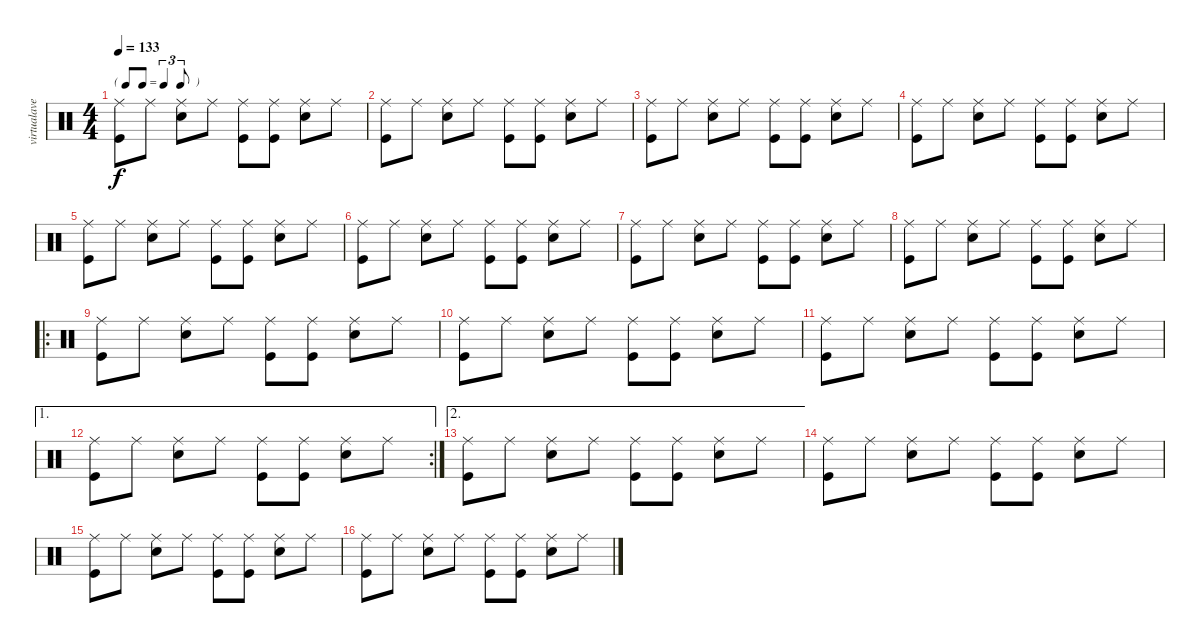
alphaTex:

\track ("virtualave.net" "virtualave") {instrument percussion}
\staff {score}
\articulation defaults
\ts (4 4)
\tf triplet8th
\tempo 133
\clef neutral
\ks c
("Ride (middle)" "Kick (hit)").8{dy f} "Ride (middle)".8 ("Ride (middle)" "Snare (hit) 2").8 "Ride (middle)".8 ("Ride (middle)" "Kick (hit)").8 ("Ride (middle)" "Kick (hit)").8 ("Ride (middle)" "Snare (hit) 2").8 "Ride (middle)".8 |
("Ride (middle)" "Kick (hit)").8 "Ride (middle)".8 ("Ride (middle)" "Snare (hit) 2").8 "Ride (middle)".8 ("Ride (middle)" "Kick (hit)").8 ("Ride (middle)" "Kick (hit)").8 ("Ride (middle)" "Snare (hit) 2").8 "Ride (middle)".8 |
("Ride (middle)" "Kick (hit)").8 "Ride (middle)".8 ("Ride (middle)" "Snare (hit) 2").8 "Ride (middle)".8 ("Ride (middle)" "Kick (hit)").8 ("Ride (middle)" "Kick (hit)").8 ("Ride (middle)" "Snare (hit) 2").8 "Ride (middle)".8 |
("Ride (middle)" "Kick (hit)").8 "Ride (middle)".8 ("Ride (middle)" "Snare (hit) 2").8 "Ride (middle)".8 ("Ride (middle)" "Kick (hit)").8 ("Ride (middle)" "Kick (hit)").8 ("Ride (middle)" "Snare (hit) 2").8 "Ride (middle)".8 |
("Ride (middle)" "Kick (hit)").8 "Ride (middle)".8 ("Ride (middle)" "Snare (hit) 2").8 "Ride (middle)".8 ("Ride (middle)" "Kick (hit)").8 ("Ride (middle)" "Kick (hit)").8 ("Ride (middle)" "Snare (hit) 2").8 "Ride (middle)".8 |
("Ride (middle)" "Kick (hit)").8 "Ride (middle)".8 ("Ride (middle)" "Snare (hit) 2").8 "Ride (middle)".8 ("Ride (middle)" "Kick (hit)").8 ("Ride (middle)" "Kick (hit)").8 ("Ride (middle)" "Snare (hit) 2").8 "Ride (middle)".8 |
("Ride (middle)" "Kick (hit)").8 "Ride (middle)".8 ("Ride (middle)" "Snare (hit) 2").8 "Ride (middle)".8 ("Ride (middle)" "Kick (hit)").8 ("Ride (middle)" "Kick (hit)").8 ("Ride (middle)" "Snare (hit) 2").8 "Ride (middle)".8 |
("Ride (middle)" "Kick (hit)").8 "Ride (middle)".8 ("Ride (middle)" "Snare (hit) 2").8 "Ride (middle)".8 ("Ride (middle)" "Kick (hit)").8 ("Ride (middle)" "Kick (hit)").8 ("Ride (middle)" "Snare (hit) 2").8 "Ride (middle)".8 |
\ro
("Ride (middle)" "Kick (hit)").8 "Ride (middle)".8 ("Ride (middle)" "Snare (hit) 2").8 "Ride (middle)".8 ("Ride (middle)" "Kick (hit)").8 ("Ride (middle)" "Kick (hit)").8 ("Ride (middle)" "Snare (hit) 2").8 "Ride (middle)".8 |
("Ride (middle)" "Kick (hit)").8 "Ride (middle)".8 ("Ride (middle)" "Snare (hit) 2").8 "Ride (middle)".8 ("Ride (middle)" "Kick (hit)").8 ("Ride (middle)" "Kick (hit)").8 ("Ride (middle)" "Snare (hit) 2").8 "Ride (middle)".8 |
("Ride (middle)" "Kick (hit)").8 "Ride (middle)".8 ("Ride (middle)" "Snare (hit) 2").8 "Ride (middle)".8 ("Ride (middle)" "Kick (hit)").8 ("Ride (middle)" "Kick (hit)").8 ("Ride (middle)" "Snare (hit) 2").8 "Ride (middle)".8 |
\ae 1
\rc 2
("Ride (middle)" "Kick (hit)").8 "Ride (middle)".8 ("Ride (middle)" "Snare (hit) 2").8 "Ride (middle)".8 ("Ride (middle)" "Kick (hit)").8 ("Ride (middle)" "Kick (hit)").8 ("Ride (middle)" "Snare (hit) 2").8 "Ride (middle)".8 |
\ae 2
("Ride (middle)" "Kick (hit)").8 "Ride (middle)".8 ("Ride (middle)" "Snare (hit) 2").8 "Ride (middle)".8 ("Ride (middle)" "Kick (hit)").8 ("Ride (middle)" "Kick (hit)").8 ("Ride (middle)" "Snare (hit) 2").8 "Ride (middle)".8 |
("Ride (middle)" "Kick (hit)").8 "Ride (middle)".8 ("Ride (middle)" "Snare (hit) 2").8 "Ride (middle)".8 ("Ride (middle)" "Kick (hit)").8 ("Ride (middle)" "Kick (hit)").8 ("Ride (middle)" "Snare (hit) 2").8 "Ride (middle)".8 |
("Ride (middle)" "Kick (hit)").8 "Ride (middle)".8 ("Ride (middle)" "Snare (hit) 2").8 "Ride (middle)".8 ("Ride (middle)" "Kick (hit)").8 ("Ride (middle)" "Kick (hit)").8 ("Ride (middle)" "Snare (hit) 2").8 "Ride (middle)".8 |
("Ride (middle)" "Kick (hit)").8 "Ride (middle)".8 ("Ride (middle)" "Snare (hit) 2").8 "Ride (middle)".8 ("Ride (middle)" "Kick (hit)").8 ("Ride (middle)" "Kick (hit)").8 ("Ride (middle)" "Snare (hit) 2").8 "Ride (middle)".8
